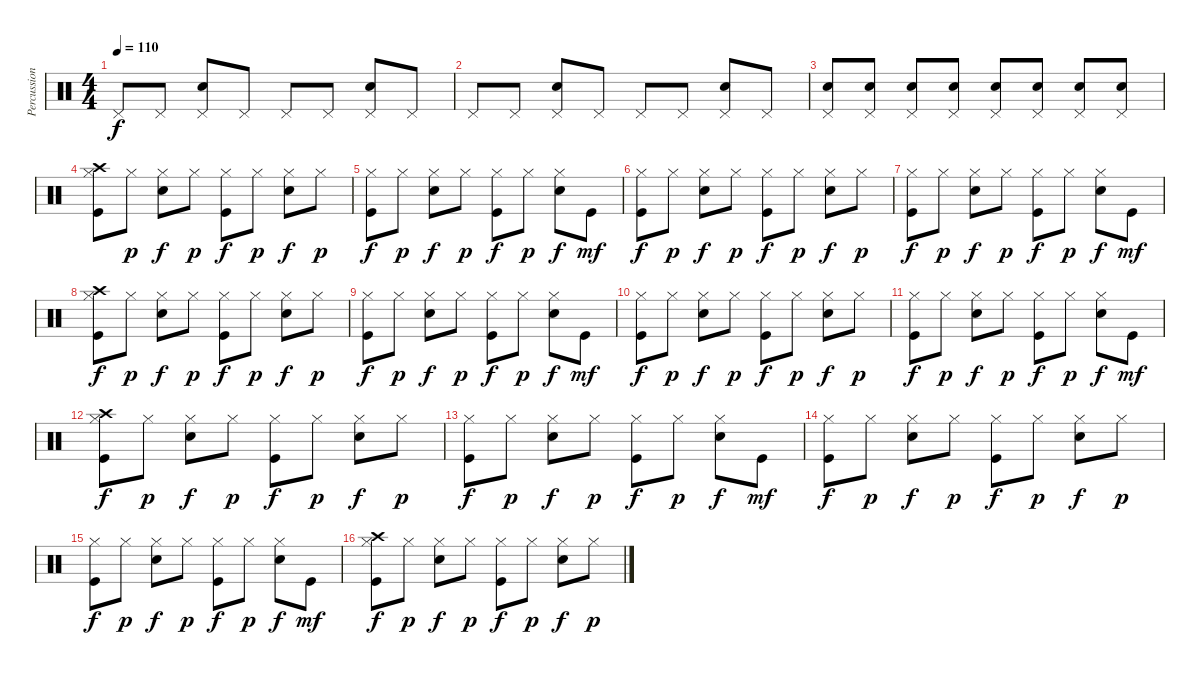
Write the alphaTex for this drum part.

\track ("Percussions" "Percussion") {instrument percussion}
\staff {score}
\articulation defaults
\ts (4 4)
\tempo 110
\clef neutral
\ks c "Pedal Hi-Hat (hit)".8{dy f} "Pedal Hi-Hat (hit)".8
("Hand Clap (hit)" "Pedal Hi-Hat (hit)").8 "Pedal Hi-Hat (hit)".8 "Pedal Hi-Hat (hit)".8 "Pedal Hi-Hat (hit)".8 ("Hand Clap (hit)" "Pedal Hi-Hat (hit)").8 "Pedal Hi-Hat (hit)".8 |
"Pedal Hi-Hat (hit)".8 "Pedal Hi-Hat (hit)".8 ("Hand Clap (hit)" "Pedal Hi-Hat (hit)").8 "Pedal Hi-Hat (hit)".8 "Pedal Hi-Hat (hit)".8 "Pedal Hi-Hat (hit)".8 ("Hand Clap (hit)" "Pedal Hi-Hat (hit)").8 "Pedal Hi-Hat (hit)".8 |
("Electric Snare (hit)" "Pedal Hi-Hat (hit)").8 ("Electric Snare (hit)" "Pedal Hi-Hat (hit)").8 ("Electric Snare (hit)" "Pedal Hi-Hat (hit)").8 ("Electric Snare (hit)" "Pedal Hi-Hat (hit)").8 ("Electric Snare (hit)" "Pedal Hi-Hat (hit)").8 ("Electric Snare (hit)" "Pedal Hi-Hat (hit)").8 ("Electric Snare (hit)" "Pedal Hi-Hat (hit)").8 ("Electric Snare (hit)" "Pedal Hi-Hat (hit)").8 |
("Kick (hit)" "Hi-Hat (closed)" "Crash high (hit)").8 "Hi-Hat (closed)".8{dy p} ("Snare (hit) 2" "Hi-Hat (closed)").8{dy f} "Hi-Hat (closed)".8{dy p} ("Kick (hit)" "Hi-Hat (closed)").8{dy f} "Hi-Hat (closed)".8{dy p} ("Snare (hit) 2" "Hi-Hat (closed)").8{dy f} "Hi-Hat (closed)".8{dy p} |
("Kick (hit)" "Hi-Hat (closed)").8{dy f} "Hi-Hat (closed)".8{dy p} ("Snare (hit) 2" "Hi-Hat (closed)").8{dy f} "Hi-Hat (closed)".8{dy p} ("Kick (hit)" "Hi-Hat (closed)").8{dy f} "Hi-Hat (closed)".8{dy p} ("Snare (hit) 2" "Hi-Hat (closed)").8{dy f} "Kick (hit)".8{dy mf} |
("Kick (hit)" "Hi-Hat (closed)").8{dy f} "Hi-Hat (closed)".8{dy p} ("Snare (hit) 2" "Hi-Hat (closed)").8{dy f} "Hi-Hat (closed)".8{dy p} ("Kick (hit)" "Hi-Hat (closed)").8{dy f} "Hi-Hat (closed)".8{dy p} ("Snare (hit) 2" "Hi-Hat (closed)").8{dy f} "Hi-Hat (closed)".8{dy p} |
("Kick (hit)" "Hi-Hat (closed)").8{dy f} "Hi-Hat (closed)".8{dy p} ("Snare (hit) 2" "Hi-Hat (closed)").8{dy f} "Hi-Hat (closed)".8{dy p} ("Kick (hit)" "Hi-Hat (closed)").8{dy f} "Hi-Hat (closed)".8{dy p} ("Snare (hit) 2" "Hi-Hat (closed)").8{dy f} "Kick (hit)".8{dy mf} |
("Kick (hit)" "Hi-Hat (closed)" "Crash high (hit)").8{dy f} "Hi-Hat (closed)".8{dy p} ("Snare (hit) 2" "Hi-Hat (closed)").8{dy f} "Hi-Hat (closed)".8{dy p} ("Kick (hit)" "Hi-Hat (closed)").8{dy f} "Hi-Hat (closed)".8{dy p} ("Snare (hit) 2" "Hi-Hat (closed)").8{dy f} "Hi-Hat (closed)".8{dy p} |
("Kick (hit)" "Hi-Hat (closed)").8{dy f} "Hi-Hat (closed)".8{dy p} ("Snare (hit) 2" "Hi-Hat (closed)").8{dy f} "Hi-Hat (closed)".8{dy p} ("Kick (hit)" "Hi-Hat (closed)").8{dy f} "Hi-Hat (closed)".8{dy p} ("Snare (hit) 2" "Hi-Hat (closed)").8{dy f} "Kick (hit)".8{dy mf} |
("Kick (hit)" "Hi-Hat (closed)").8{dy f} "Hi-Hat (closed)".8{dy p} ("Snare (hit) 2" "Hi-Hat (closed)").8{dy f} "Hi-Hat (closed)".8{dy p} ("Kick (hit)" "Hi-Hat (closed)").8{dy f} "Hi-Hat (closed)".8{dy p} ("Snare (hit) 2" "Hi-Hat (closed)").8{dy f} "Hi-Hat (closed)".8{dy p} |
("Kick (hit)" "Hi-Hat (closed)").8{dy f} "Hi-Hat (closed)".8{dy p} ("Snare (hit) 2" "Hi-Hat (closed)").8{dy f} "Hi-Hat (closed)".8{dy p} ("Kick (hit)" "Hi-Hat (closed)").8{dy f} "Hi-Hat (closed)".8{dy p} ("Snare (hit) 2" "Hi-Hat (closed)").8{dy f} "Kick (hit)".8{dy mf} |
("Kick (hit)" "Hi-Hat (closed)" "Crash high (hit)").8{dy f} "Hi-Hat (closed)".8{dy p} ("Snare (hit) 2" "Hi-Hat (closed)").8{dy f} "Hi-Hat (closed)".8{dy p} ("Kick (hit)" "Hi-Hat (closed)").8{dy f} "Hi-Hat (closed)".8{dy p} ("Snare (hit) 2" "Hi-Hat (closed)").8{dy f} "Hi-Hat (closed)".8{dy p} |
("Kick (hit)" "Hi-Hat (closed)").8{dy f} "Hi-Hat (closed)".8{dy p} ("Snare (hit) 2" "Hi-Hat (closed)").8{dy f} "Hi-Hat (closed)".8{dy p} ("Kick (hit)" "Hi-Hat (closed)").8{dy f} "Hi-Hat (closed)".8{dy p} ("Snare (hit) 2" "Hi-Hat (closed)").8{dy f} "Kick (hit)".8{dy mf} |
("Kick (hit)" "Hi-Hat (closed)").8{dy f} "Hi-Hat (closed)".8{dy p} ("Snare (hit) 2" "Hi-Hat (closed)").8{dy f} "Hi-Hat (closed)".8{dy p} ("Kick (hit)" "Hi-Hat (closed)").8{dy f} "Hi-Hat (closed)".8{dy p} ("Snare (hit) 2" "Hi-Hat (closed)").8{dy f} "Hi-Hat (closed)".8{dy p} |
("Kick (hit)" "Hi-Hat (closed)").8{dy f} "Hi-Hat (closed)".8{dy p} ("Snare (hit) 2" "Hi-Hat (closed)").8{dy f} "Hi-Hat (closed)".8{dy p} ("Kick (hit)" "Hi-Hat (closed)").8{dy f} "Hi-Hat (closed)".8{dy p} ("Snare (hit) 2" "Hi-Hat (closed)").8{dy f} "Kick (hit)".8{dy mf} |
("Kick (hit)" "Hi-Hat (closed)" "Crash high (hit)").8{dy f} "Hi-Hat (closed)".8{dy p} ("Snare (hit) 2" "Hi-Hat (closed)").8{dy f} "Hi-Hat (closed)".8{dy p} ("Kick (hit)" "Hi-Hat (closed)").8{dy f} "Hi-Hat (closed)".8{dy p} ("Snare (hit) 2" "Hi-Hat (closed)").8{dy f} "Hi-Hat (closed)".8{dy p}
